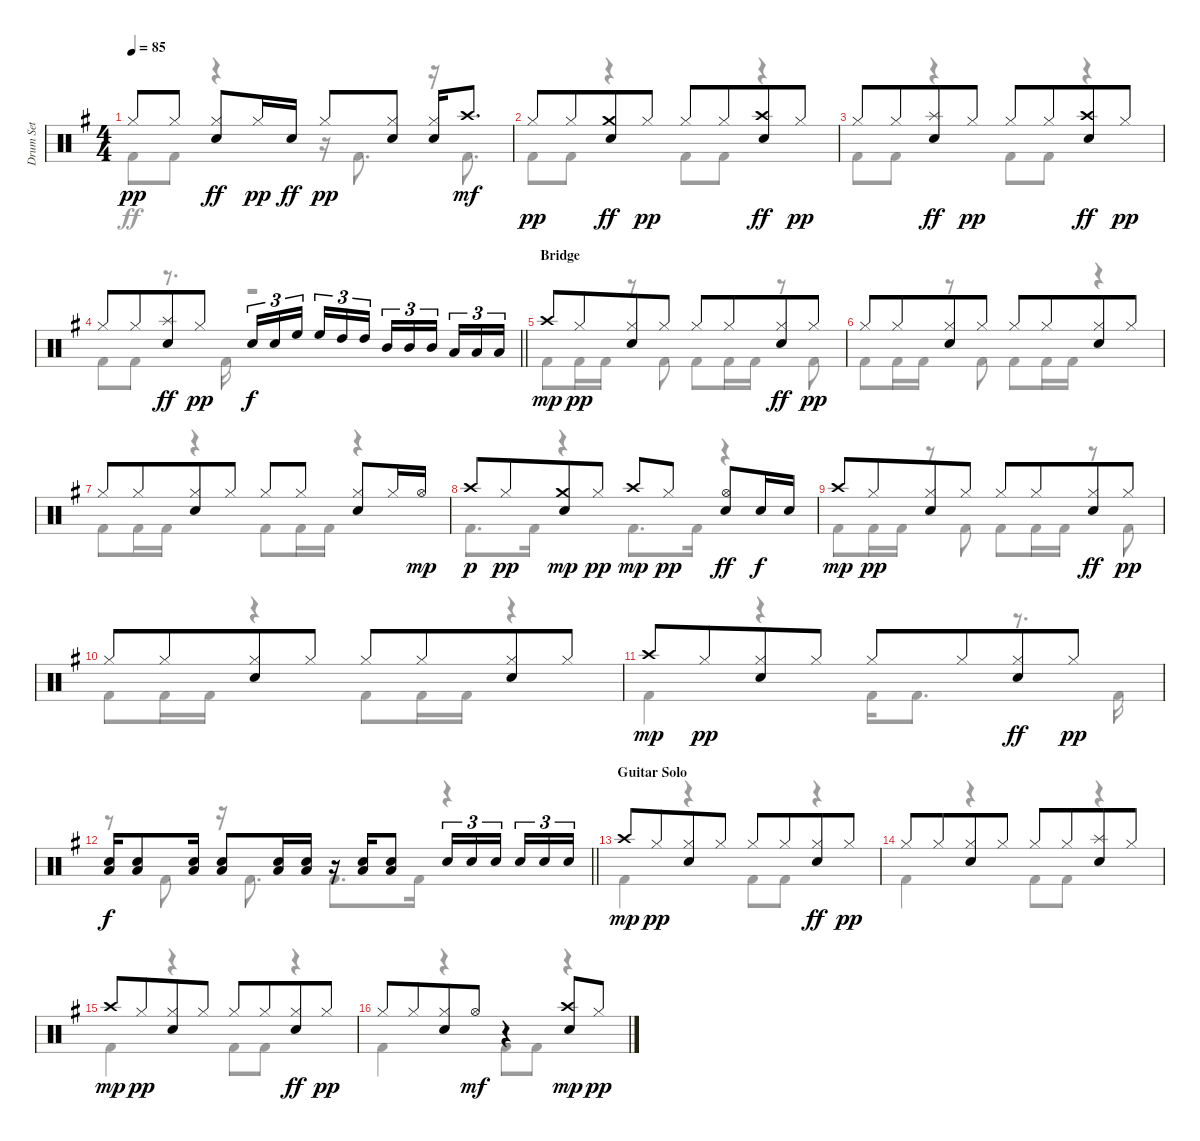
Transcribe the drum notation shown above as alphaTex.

\track ("Drum Set" "Drum Set") {instrument percussion}
\staff {score}
\articulation defaults
\voice
\ts (4 4)
\tempo 85
\clef neutral
\ks g "Hi-Hat (closed)".8{dy pp} "Hi-Hat (closed)".8
("Hi-Hat (closed)" "Electric Snare (hit)").8{dy ff} "Hi-Hat (closed)".16{dy pp} "Electric Snare (hit)".16{dy ff} "Hi-Hat (closed)".8{dy pp} ("Hi-Hat (closed)" "Electric Snare (hit)").8 ("Hi-Hat (closed)" "Electric Snare (hit)").16 "Crash high (hit)".8{d dy mf} |
"Hi-Hat (closed)".8{dy pp} "Hi-Hat (closed)".8{beam merge} ("Crash medium (hit)" "Electric Snare (hit)").8{dy ff} "Hi-Hat (closed)".8{dy pp} "Hi-Hat (closed)".8 "Hi-Hat (closed)".8{beam merge} ("Crash high (hit)" "Electric Snare (hit)").8{dy ff} "Hi-Hat (closed)".8{dy pp} |
"Hi-Hat (closed)".8 "Hi-Hat (closed)".8{beam merge} ("Splash (hit)" "Electric Snare (hit)").8{dy ff} "Hi-Hat (closed)".8{dy pp} "Hi-Hat (closed)".8 "Hi-Hat (closed)".8{beam merge} ("Crash high (hit)" "Electric Snare (hit)").8{dy ff} "Hi-Hat (closed)".8{dy pp} |
\barLineRight lightlight "Hi-Hat (closed)".8 "Hi-Hat (closed)".8{beam merge}
("Splash (hit)" "Electric Snare (hit)").8{dy ff} "Hi-Hat (closed)".8{dy pp} "Electric Snare (hit)".16{tu (3 2) dy f} "Electric Snare (hit)".16{tu (3 2)} "High Floor Tom (hit)".16{tu (3 2) beam splitsecondary} "High Floor Tom (hit)".16{tu (3 2)} "High Tom (hit)".16{tu (3 2)} "High Tom (hit)".16{tu (3 2)} "Mid Tom (hit)".16{tu (3 2)} "Mid Tom (hit)".16{tu (3 2)} "Mid Tom (hit)".16{tu (3 2) beam splitsecondary} "Low Tom (hit)".16{tu (3 2)} "Low Tom (hit)".16{tu (3 2)} "Low Tom (hit)".16{tu (3 2)} |
\section ("" "Bridge")
"Crash high (hit)".8{dy mp} "Hi-Hat (closed)".8{dy pp beam merge} ("Hi-Hat (closed)" "Electric Snare (hit)").8 "Hi-Hat (closed)".8 "Hi-Hat (closed)".8 "Hi-Hat (closed)".8{beam merge} ("Hi-Hat (closed)" "Electric Snare (hit)").8{dy ff} "Hi-Hat (closed)".8{dy pp} |
"Hi-Hat (closed)".8 "Hi-Hat (closed)".8{beam merge} ("Hi-Hat (closed)" "Electric Snare (hit)").8 "Hi-Hat (closed)".8 "Hi-Hat (closed)".8 "Hi-Hat (closed)".8{beam merge} ("Hi-Hat (closed)" "Electric Snare (hit)").8 "Hi-Hat (closed)".8 |
"Hi-Hat (closed)".8 "Hi-Hat (closed)".8{beam merge} ("Hi-Hat (closed)" "Electric Snare (hit)").8 "Hi-Hat (closed)".8 "Hi-Hat (closed)".8 "Hi-Hat (closed)".8 ("Hi-Hat (closed)" "Electric Snare (hit)").8 "Hi-Hat (closed)".16 "Hi-Hat (open)".16{dy mp} |
"Crash high (hit)".8{dy p} "Hi-Hat (closed)".8{dy pp beam merge} ("Crash medium (hit)" "Electric Snare (hit)").8{dy mp} "Hi-Hat (closed)".8{dy pp} "Crash high (hit)".8{dy mp} "Hi-Hat (closed)".8{dy pp} ("Hi-Hat (open)" "Electric Snare (hit)").8{dy ff} "Electric Snare (hit)".16{dy f} "Electric Snare (hit)".16 |
"Crash high (hit)".8{dy mp} "Hi-Hat (closed)".8{dy pp beam merge} ("Hi-Hat (closed)" "Electric Snare (hit)").8 "Hi-Hat (closed)".8 "Hi-Hat (closed)".8 "Hi-Hat (closed)".8{beam merge} ("Hi-Hat (closed)" "Electric Snare (hit)").8{dy ff} "Hi-Hat (closed)".8{dy pp} |
"Hi-Hat (closed)".8 "Hi-Hat (closed)".8{beam merge} ("Hi-Hat (closed)" "Electric Snare (hit)").8 "Hi-Hat (closed)".8 "Hi-Hat (closed)".8 "Hi-Hat (closed)".8{beam merge} ("Hi-Hat (closed)" "Electric Snare (hit)").8 "Hi-Hat (closed)".8 |
"Crash high (hit)".8{dy mp} "Hi-Hat (closed)".8{dy pp beam merge} ("Hi-Hat (closed)" "Electric Snare (hit)").8 "Hi-Hat (closed)".8 "Hi-Hat (closed)".8 "Hi-Hat (closed)".8{beam merge} ("Hi-Hat (closed)" "Electric Snare (hit)").8{dy ff} "Hi-Hat (closed)".8{dy pp} |
\barLineRight lightlight
("Electric Snare (hit)" "Low Tom (hit)").16{dy f} ("Electric Snare (hit)" "Low Tom (hit)").8 ("Electric Snare (hit)" "Low Tom (hit)").16 ("Electric Snare (hit)" "Low Tom (hit)").8 ("Electric Snare (hit)" "Low Tom (hit)").16 ("Electric Snare (hit)" "Low Tom (hit)").16 r.16 ("Electric Snare (hit)" "Low Tom (hit)").16 ("Electric Snare (hit)" "Low Tom (hit)").8 "Electric Snare (hit)".16{tu (3 2)} "Electric Snare (hit)".16{tu (3 2)} "Electric Snare (hit)".16{tu (3 2) beam splitsecondary} "Electric Snare (hit)".16{tu (3 2)} "Electric Snare (hit)".16{tu (3 2)} "Electric Snare (hit)".16{tu (3 2)} |
\section ("" "Guitar Solo")
"Crash high (hit)".8{dy mp} "Hi-Hat (closed)".8{dy pp beam merge} ("Hi-Hat (closed)" "Electric Snare (hit)").8 "Hi-Hat (closed)".8 "Hi-Hat (closed)".8 "Hi-Hat (closed)".8{beam merge} ("Hi-Hat (closed)" "Electric Snare (hit)").8{dy ff} "Hi-Hat (closed)".8{dy pp} |
"Hi-Hat (closed)".8 "Hi-Hat (closed)".8{beam merge} ("Hi-Hat (closed)" "Electric Snare (hit)").8 "Hi-Hat (closed)".8 "Hi-Hat (closed)".8 "Hi-Hat (closed)".8{beam merge} ("Splash (hit)" "Electric Snare (hit)").8 "Hi-Hat (closed)".8 |
"Crash high (hit)".8{dy mp} "Hi-Hat (closed)".8{dy pp beam merge} ("Hi-Hat (closed)" "Electric Snare (hit)").8 "Hi-Hat (closed)".8 "Hi-Hat (closed)".8 "Hi-Hat (closed)".8{beam merge} ("Hi-Hat (closed)" "Electric Snare (hit)").8{dy ff} "Hi-Hat (closed)".8{dy pp} |
"Hi-Hat (closed)".8 "Hi-Hat (closed)".8{beam merge} ("Hi-Hat (closed)" "Electric Snare (hit)").8 "Hi-Hat (open)".8{dy mf} r.4 ("Crash high (hit)" "Electric Snare (hit)").8{dy mp} "Hi-Hat (closed)".8{dy pp}
\voice
\clef neutral
\ottava regular
\simile none
\ks g "Kick (hit) 2".8{dy ff} "Kick (hit) 2".8
r.4 r.16 "Kick (hit) 2".8{d} r.16 "Kick (hit) 2".8{d} |
"Kick (hit) 2".8 "Kick (hit) 2".8 r.4 "Kick (hit) 2".8 "Kick (hit) 2".8 r.4 |
"Kick (hit) 2".8 "Kick (hit) 2".8 r.4 "Kick (hit) 2".8 "Kick (hit) 2".8 r.4 |
\barLineRight lightlight "Kick (hit) 2".8 "Kick (hit) 2".8
r.8{d} "Kick (hit) 2".16 r.2 |
"Kick (hit) 2".8 "Kick (hit) 2".16 "Kick (hit) 2".16 r.8 "Kick (hit) 2".8 "Kick (hit) 2".8 "Kick (hit) 2".16 "Kick (hit) 2".16 r.8 "Kick (hit) 2".8 |
"Kick (hit) 2".8 "Kick (hit) 2".16 "Kick (hit) 2".16 r.8 "Kick (hit) 2".8 "Kick (hit) 2".8 "Kick (hit) 2".16 "Kick (hit) 2".16 r.4 |
"Kick (hit) 2".8 "Kick (hit) 2".16 "Kick (hit) 2".16 r.4 "Kick (hit) 2".8 "Kick (hit) 2".16 "Kick (hit) 2".16 r.4 |
"Kick (hit) 2".8{d} "Kick (hit) 2".16 r.4 "Kick (hit) 2".8{d} "Kick (hit) 2".16 r.4 |
"Kick (hit) 2".8 "Kick (hit) 2".16 "Kick (hit) 2".16 r.8 "Kick (hit) 2".8 "Kick (hit) 2".8 "Kick (hit) 2".16 "Kick (hit) 2".16 r.8 "Kick (hit) 2".8 |
"Kick (hit) 2".8 "Kick (hit) 2".16 "Kick (hit) 2".16 r.4 "Kick (hit) 2".8 "Kick (hit) 2".16 "Kick (hit) 2".16 r.4 |
"Kick (hit) 2".4 r.4 "Kick (hit) 2".16 "Kick (hit) 2".8{d} r.8{d} "Kick (hit) 2".16 |
\barLineRight lightlight
r.8 "Kick (hit) 2".8 r.16 "Kick (hit) 2".8{d} "Kick (hit) 2".8{d} "Kick (hit) 2".16 r.4 |
"Kick (hit) 2".4 r.4 "Kick (hit) 2".8 "Kick (hit) 2".8 r.4 |
"Kick (hit) 2".4 r.4 "Kick (hit) 2".8 "Kick (hit) 2".8 r.4 |
"Kick (hit) 2".4 r.4 "Kick (hit) 2".8 "Kick (hit) 2".8 r.4 |
"Kick (hit) 2".4 r.4 "Kick (hit) 2".8 "Kick (hit) 2".8 r.4
